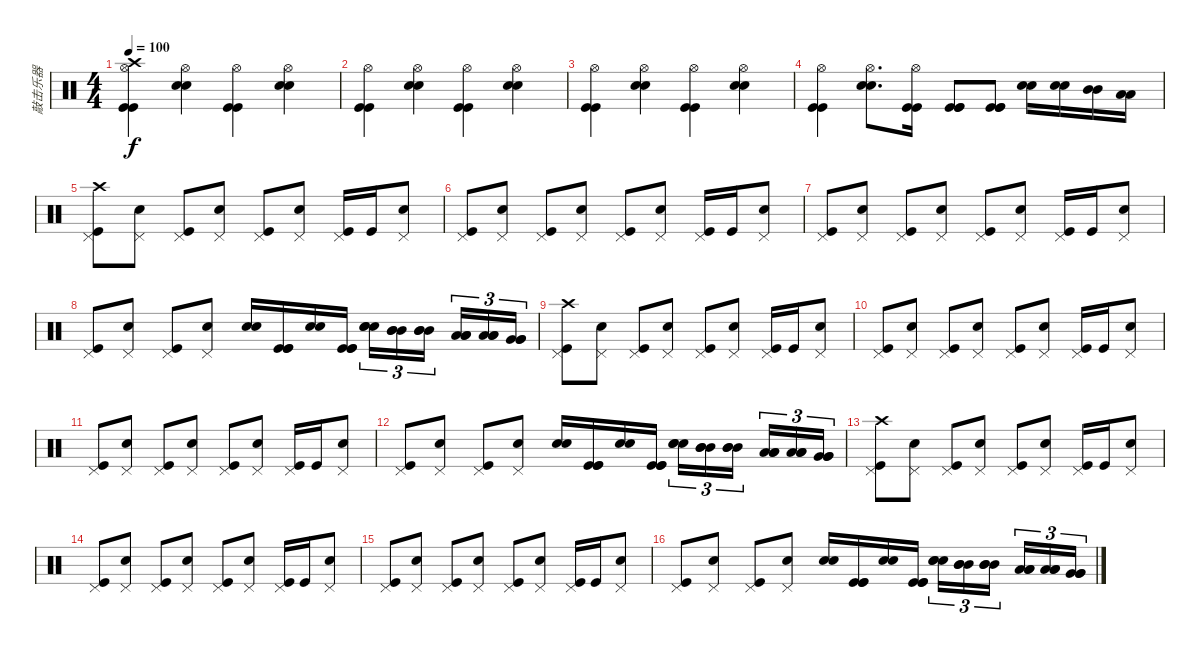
\track ("敲击乐器" "敲击乐器") {instrument percussion}
\staff {score}
\articulation defaults
\ts (4 4)
\tempo 100
\clef neutral
\ks c
("Hi-Hat (open)" "Crash high (hit)" "Kick (hit)" "Kick (hit)").4{dy f} ("Hi-Hat (open)" "Snare (hit) 2" "Snare (hit) 2").4 ("Hi-Hat (open)" "Kick (hit)" "Kick (hit)").4 ("Hi-Hat (open)" "Snare (hit) 2" "Snare (hit) 2").4 |
("Hi-Hat (open)" "Kick (hit)" "Kick (hit)").4 ("Hi-Hat (open)" "Snare (hit) 2" "Snare (hit) 2").4 ("Hi-Hat (open)" "Kick (hit)" "Kick (hit)").4 ("Hi-Hat (open)" "Snare (hit) 2" "Snare (hit) 2").4 |
("Hi-Hat (open)" "Kick (hit)" "Kick (hit)").4 ("Hi-Hat (open)" "Snare (hit) 2" "Snare (hit) 2").4 ("Hi-Hat (open)" "Kick (hit)" "Kick (hit)").4 ("Hi-Hat (open)" "Snare (hit) 2" "Snare (hit) 2").4 |
("Hi-Hat (open)" "Kick (hit)" "Kick (hit)").4 ("Hi-Hat (open)" "Snare (hit) 2" "Snare (hit) 2").8{d} ("Hi-Hat (open)" "Kick (hit)" "Kick (hit)").16 ("Kick (hit)" "Kick (hit)" "Kick (hit)").8 ("Kick (hit)" "Kick (hit)" "Kick (hit)").8 ("Snare (hit) 2" "Snare (hit) 2").16 ("Snare (hit) 2" "Snare (hit) 2").16 ("Mid Tom (hit)" "Mid Tom (hit)").16 ("Low Tom (hit)" "Low Tom (hit)").16 |
("Crash high (hit)" "Pedal Hi-Hat (hit)" "Kick (hit)").8 ("Pedal Hi-Hat (hit)" "Snare (hit) 2").8 ("Pedal Hi-Hat (hit)" "Kick (hit)").8 ("Pedal Hi-Hat (hit)" "Snare (hit) 2").8 ("Pedal Hi-Hat (hit)" "Kick (hit)").8 ("Pedal Hi-Hat (hit)" "Snare (hit) 2").8 ("Pedal Hi-Hat (hit)" "Kick (hit)").16 "Kick (hit)".16 ("Pedal Hi-Hat (hit)" "Snare (hit) 2").8 |
("Pedal Hi-Hat (hit)" "Kick (hit)").8 ("Pedal Hi-Hat (hit)" "Snare (hit) 2").8 ("Pedal Hi-Hat (hit)" "Kick (hit)").8 ("Pedal Hi-Hat (hit)" "Snare (hit) 2").8 ("Pedal Hi-Hat (hit)" "Kick (hit)").8 ("Pedal Hi-Hat (hit)" "Snare (hit) 2").8 ("Pedal Hi-Hat (hit)" "Kick (hit)").16 "Kick (hit)".16 ("Pedal Hi-Hat (hit)" "Snare (hit) 2").8 |
("Pedal Hi-Hat (hit)" "Kick (hit)").8 ("Pedal Hi-Hat (hit)" "Snare (hit) 2").8 ("Pedal Hi-Hat (hit)" "Kick (hit)").8 ("Pedal Hi-Hat (hit)" "Snare (hit) 2").8 ("Pedal Hi-Hat (hit)" "Kick (hit)").8 ("Pedal Hi-Hat (hit)" "Snare (hit) 2").8 ("Pedal Hi-Hat (hit)" "Kick (hit)").16 "Kick (hit)".16 ("Pedal Hi-Hat (hit)" "Snare (hit) 2").8 |
("Pedal Hi-Hat (hit)" "Kick (hit)").8 ("Pedal Hi-Hat (hit)" "Snare (hit) 2").8 ("Pedal Hi-Hat (hit)" "Kick (hit)").8 ("Pedal Hi-Hat (hit)" "Snare (hit) 2").8 ("Snare (hit) 2" "Snare (hit) 2").16 ("Kick (hit)" "Kick (hit)" "Kick (hit)").16 ("Snare (hit) 2" "Snare (hit) 2").16 ("Kick (hit)" "Kick (hit)" "Kick (hit)").16 ("Snare (hit) 2" "Snare (hit) 2" "Snare (hit) 2").16{tu (3 2)} ("Mid Tom (hit)" "Mid Tom (hit)" "Mid Tom (hit)").16{tu (3 2)} ("Mid Tom (hit)" "Mid Tom (hit)" "Mid Tom (hit)").16{tu (3 2) beam splitsecondary} ("Low Tom (hit)" "Low Tom (hit)" "Low Tom (hit)").16{tu (3 2)} ("Low Tom (hit)" "Low Tom (hit)" "Low Tom (hit)").16{tu (3 2)} ("Very Low Tom (hit)" "Very Low Tom (hit)" "Very Low Tom (hit)").16{tu (3 2)} |
("Crash high (hit)" "Pedal Hi-Hat (hit)" "Kick (hit)").8 ("Pedal Hi-Hat (hit)" "Snare (hit) 2").8 ("Pedal Hi-Hat (hit)" "Kick (hit)").8 ("Pedal Hi-Hat (hit)" "Snare (hit) 2").8 ("Pedal Hi-Hat (hit)" "Kick (hit)").8 ("Pedal Hi-Hat (hit)" "Snare (hit) 2").8 ("Pedal Hi-Hat (hit)" "Kick (hit)").16 "Kick (hit)".16 ("Pedal Hi-Hat (hit)" "Snare (hit) 2").8 |
("Pedal Hi-Hat (hit)" "Kick (hit)").8 ("Pedal Hi-Hat (hit)" "Snare (hit) 2").8 ("Pedal Hi-Hat (hit)" "Kick (hit)").8 ("Pedal Hi-Hat (hit)" "Snare (hit) 2").8 ("Pedal Hi-Hat (hit)" "Kick (hit)").8 ("Pedal Hi-Hat (hit)" "Snare (hit) 2").8 ("Pedal Hi-Hat (hit)" "Kick (hit)").16 "Kick (hit)".16 ("Pedal Hi-Hat (hit)" "Snare (hit) 2").8 |
("Pedal Hi-Hat (hit)" "Kick (hit)").8 ("Pedal Hi-Hat (hit)" "Snare (hit) 2").8 ("Pedal Hi-Hat (hit)" "Kick (hit)").8 ("Pedal Hi-Hat (hit)" "Snare (hit) 2").8 ("Pedal Hi-Hat (hit)" "Kick (hit)").8 ("Pedal Hi-Hat (hit)" "Snare (hit) 2").8 ("Pedal Hi-Hat (hit)" "Kick (hit)").16 "Kick (hit)".16 ("Pedal Hi-Hat (hit)" "Snare (hit) 2").8 |
("Pedal Hi-Hat (hit)" "Kick (hit)").8 ("Pedal Hi-Hat (hit)" "Snare (hit) 2").8 ("Pedal Hi-Hat (hit)" "Kick (hit)").8 ("Pedal Hi-Hat (hit)" "Snare (hit) 2").8 ("Snare (hit) 2" "Snare (hit) 2").16 ("Kick (hit)" "Kick (hit)" "Kick (hit)").16 ("Snare (hit) 2" "Snare (hit) 2").16 ("Kick (hit)" "Kick (hit)" "Kick (hit)").16 ("Snare (hit) 2" "Snare (hit) 2" "Snare (hit) 2").16{tu (3 2)} ("Mid Tom (hit)" "Mid Tom (hit)" "Mid Tom (hit)").16{tu (3 2)} ("Mid Tom (hit)" "Mid Tom (hit)" "Mid Tom (hit)").16{tu (3 2) beam splitsecondary} ("Low Tom (hit)" "Low Tom (hit)" "Low Tom (hit)").16{tu (3 2)} ("Low Tom (hit)" "Low Tom (hit)" "Low Tom (hit)").16{tu (3 2)} ("Very Low Tom (hit)" "Very Low Tom (hit)" "Very Low Tom (hit)").16{tu (3 2)} |
("Crash high (hit)" "Pedal Hi-Hat (hit)" "Kick (hit)").8 ("Pedal Hi-Hat (hit)" "Snare (hit) 2").8 ("Pedal Hi-Hat (hit)" "Kick (hit)").8 ("Pedal Hi-Hat (hit)" "Snare (hit) 2").8 ("Pedal Hi-Hat (hit)" "Kick (hit)").8 ("Pedal Hi-Hat (hit)" "Snare (hit) 2").8 ("Pedal Hi-Hat (hit)" "Kick (hit)").16 "Kick (hit)".16 ("Pedal Hi-Hat (hit)" "Snare (hit) 2").8 |
("Pedal Hi-Hat (hit)" "Kick (hit)").8 ("Pedal Hi-Hat (hit)" "Snare (hit) 2").8 ("Pedal Hi-Hat (hit)" "Kick (hit)").8 ("Pedal Hi-Hat (hit)" "Snare (hit) 2").8 ("Pedal Hi-Hat (hit)" "Kick (hit)").8 ("Pedal Hi-Hat (hit)" "Snare (hit) 2").8 ("Pedal Hi-Hat (hit)" "Kick (hit)").16 "Kick (hit)".16 ("Pedal Hi-Hat (hit)" "Snare (hit) 2").8 |
("Pedal Hi-Hat (hit)" "Kick (hit)").8 ("Pedal Hi-Hat (hit)" "Snare (hit) 2").8 ("Pedal Hi-Hat (hit)" "Kick (hit)").8 ("Pedal Hi-Hat (hit)" "Snare (hit) 2").8 ("Pedal Hi-Hat (hit)" "Kick (hit)").8 ("Pedal Hi-Hat (hit)" "Snare (hit) 2").8 ("Pedal Hi-Hat (hit)" "Kick (hit)").16 "Kick (hit)".16 ("Pedal Hi-Hat (hit)" "Snare (hit) 2").8 |
("Pedal Hi-Hat (hit)" "Kick (hit)").8 ("Pedal Hi-Hat (hit)" "Snare (hit) 2").8 ("Pedal Hi-Hat (hit)" "Kick (hit)").8 ("Pedal Hi-Hat (hit)" "Snare (hit) 2").8 ("Snare (hit) 2" "Snare (hit) 2").16 ("Kick (hit)" "Kick (hit)" "Kick (hit)").16 ("Snare (hit) 2" "Snare (hit) 2").16 ("Kick (hit)" "Kick (hit)" "Kick (hit)").16 ("Snare (hit) 2" "Snare (hit) 2" "Snare (hit) 2").16{tu (3 2)} ("Mid Tom (hit)" "Mid Tom (hit)" "Mid Tom (hit)").16{tu (3 2)} ("Mid Tom (hit)" "Mid Tom (hit)" "Mid Tom (hit)").16{tu (3 2) beam splitsecondary} ("Low Tom (hit)" "Low Tom (hit)" "Low Tom (hit)").16{tu (3 2)} ("Low Tom (hit)" "Low Tom (hit)" "Low Tom (hit)").16{tu (3 2)} ("Very Low Tom (hit)" "Very Low Tom (hit)" "Very Low Tom (hit)").16{tu (3 2)}
